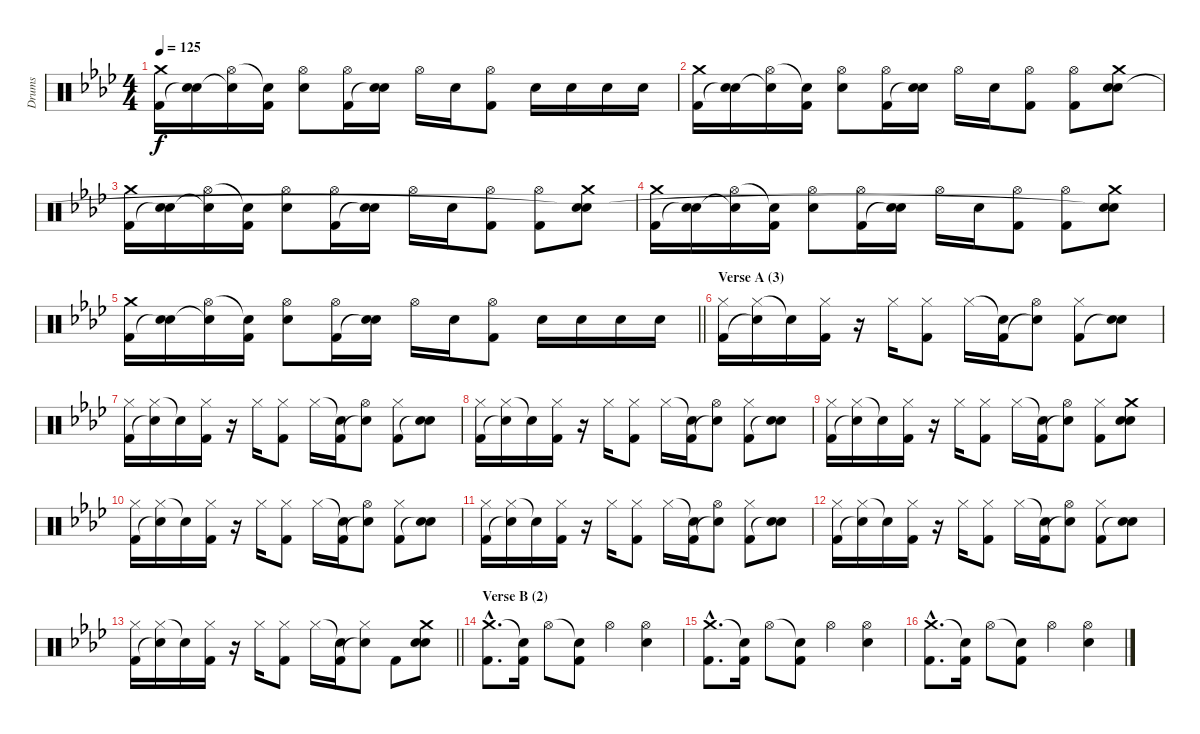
\track ("Drums" "Drums") {instrument percussion}
\staff {score}
\articulation defaults
\ts (4 4)
\tempo 125
\clef neutral
\ks ab
("Crash medium (hit)" "Kick (hit) 2").16{dy f} ("Electric Snare (hit)" "Snare (hit)"{t}).16 ("Hi-Hat (open)" "Snare (hit)"{t}).16 ("Snare (hit)"{t} "Kick (hit) 2").16 ("Hi-Hat (open)" "Electric Snare (hit)").8 ("Hi-Hat (open)" "Kick (hit) 2").16 ("Electric Snare (hit)" "Snare (hit)"{t}).16 "Hi-Hat (open)".16 "Electric Snare (hit)".16 ("Hi-Hat (open)" "Kick (hit) 2").8 "Electric Snare (hit)".16 "Electric Snare (hit)".16 "Electric Snare (hit)".16 "Electric Snare (hit)".16 |
("Crash medium (hit)" "Kick (hit) 2").16 ("Electric Snare (hit)" "Snare (hit)"{t}).16 ("Hi-Hat (open)" "Snare (hit)"{t}).16 ("Snare (hit)"{t} "Kick (hit) 2").16 ("Hi-Hat (open)" "Electric Snare (hit)").8 ("Hi-Hat (open)" "Kick (hit) 2").16 ("Electric Snare (hit)" "Snare (hit)"{t}).16 "Hi-Hat (open)".16 "Electric Snare (hit)".16 ("Hi-Hat (open)" "Kick (hit) 2").8 ("Hi-Hat (open)" "Kick (hit) 2").8 ("Crash medium (hit)" "Electric Snare (hit)" "Snare (hit)"{t}).8 |
("Crash medium (hit)" "Kick (hit) 2").16 ("Electric Snare (hit)" "Snare (hit)"{t}).16 ("Hi-Hat (open)" "Snare (hit)"{t}).16 ("Snare (hit)"{t} "Kick (hit) 2").16 ("Hi-Hat (open)" "Electric Snare (hit)").8 ("Hi-Hat (open)" "Kick (hit) 2").16 ("Electric Snare (hit)" "Snare (hit)"{t}).16 "Hi-Hat (open)".16 "Electric Snare (hit)".16 ("Hi-Hat (open)" "Kick (hit) 2").8 ("Hi-Hat (open)" "Kick (hit) 2").8 ("Crash medium (hit)" "Electric Snare (hit)" "Snare (hit)"{t}).8 |
("Crash medium (hit)" "Kick (hit) 2").16 ("Electric Snare (hit)" "Snare (hit)"{t}).16 ("Hi-Hat (open)" "Snare (hit)"{t}).16 ("Snare (hit)"{t} "Kick (hit) 2").16 ("Hi-Hat (open)" "Electric Snare (hit)").8 ("Hi-Hat (open)" "Kick (hit) 2").16 ("Electric Snare (hit)" "Snare (hit)"{t}).16 "Hi-Hat (open)".16 "Electric Snare (hit)".16 ("Hi-Hat (open)" "Kick (hit) 2").8 ("Hi-Hat (open)" "Kick (hit) 2").8 ("Crash medium (hit)" "Electric Snare (hit)" "Snare (hit)"{t}).8 |
\barLineRight lightlight
("Crash medium (hit)" "Kick (hit) 2").16 ("Electric Snare (hit)" "Snare (hit)"{t}).16 ("Hi-Hat (open)" "Snare (hit)"{t}).16 ("Snare (hit)"{t} "Kick (hit) 2").16 ("Hi-Hat (open)" "Electric Snare (hit)").8 ("Hi-Hat (open)" "Kick (hit) 2").16 ("Electric Snare (hit)" "Snare (hit)"{t}).16 "Hi-Hat (open)".16 "Electric Snare (hit)".16 ("Hi-Hat (open)" "Kick (hit) 2").8 "Electric Snare (hit)".16 "Electric Snare (hit)".16 "Electric Snare (hit)".16 "Electric Snare (hit)".16 |
\section ("" "Verse A (3)")
("Hi-Hat (closed)" "Kick (hit) 2").16 ("Hi-Hat (closed)" "Snare (hit)"{t}).16 "Snare (hit)"{t}.16 ("Hi-Hat (closed)" "Kick (hit) 2").16 r.16 "Hi-Hat (closed)".16 ("Hi-Hat (closed)" "Kick (hit) 2").8 "Hi-Hat (closed)".16 ("Snare (hit)"{t} "Kick (hit) 2").16 ("Hi-Hat (open)" "Snare (hit)"{t}).8 ("Hi-Hat (closed)" "Kick (hit) 2").8 ("Electric Snare (hit)" "Snare (hit)"{t}).8 |
("Hi-Hat (closed)" "Kick (hit) 2").16 ("Hi-Hat (closed)" "Snare (hit)"{t}).16 "Snare (hit)"{t}.16 ("Hi-Hat (closed)" "Kick (hit) 2").16 r.16 "Hi-Hat (closed)".16 ("Hi-Hat (closed)" "Kick (hit) 2").8 "Hi-Hat (closed)".16 ("Snare (hit)"{t} "Kick (hit) 2").16 ("Hi-Hat (open)" "Snare (hit)"{t}).8 ("Hi-Hat (closed)" "Kick (hit) 2").8 ("Electric Snare (hit)" "Snare (hit)"{t}).8 |
("Hi-Hat (closed)" "Kick (hit) 2").16 ("Hi-Hat (closed)" "Snare (hit)"{t}).16 "Snare (hit)"{t}.16 ("Hi-Hat (closed)" "Kick (hit) 2").16 r.16 "Hi-Hat (closed)".16 ("Hi-Hat (closed)" "Kick (hit) 2").8 "Hi-Hat (closed)".16 ("Snare (hit)"{t} "Kick (hit) 2").16 ("Hi-Hat (open)" "Snare (hit)"{t}).8 ("Hi-Hat (closed)" "Kick (hit) 2").8 ("Electric Snare (hit)" "Snare (hit)"{t}).8 |
("Hi-Hat (closed)" "Kick (hit) 2").16 ("Hi-Hat (closed)" "Snare (hit)"{t}).16 "Snare (hit)"{t}.16 ("Hi-Hat (closed)" "Kick (hit) 2").16 r.16 "Hi-Hat (closed)".16 ("Hi-Hat (closed)" "Kick (hit) 2").8 "Hi-Hat (closed)".16 ("Snare (hit)"{t} "Kick (hit) 2").16 ("Hi-Hat (open)" "Snare (hit)"{t}).8 ("Hi-Hat (closed)" "Kick (hit) 2").8 ("Crash medium (hit)" "Electric Snare (hit)" "Snare (hit)").8 |
("Hi-Hat (closed)" "Kick (hit) 2").16 ("Hi-Hat (closed)" "Snare (hit)"{t}).16 "Snare (hit)"{t}.16 ("Hi-Hat (closed)" "Kick (hit) 2").16 r.16 "Hi-Hat (closed)".16 ("Hi-Hat (closed)" "Kick (hit) 2").8 "Hi-Hat (closed)".16 ("Snare (hit)"{t} "Kick (hit) 2").16 ("Hi-Hat (open)" "Snare (hit)"{t}).8 ("Hi-Hat (closed)" "Kick (hit) 2").8 ("Electric Snare (hit)" "Snare (hit)"{t}).8 |
("Hi-Hat (closed)" "Kick (hit) 2").16 ("Hi-Hat (closed)" "Snare (hit)"{t}).16 "Snare (hit)"{t}.16 ("Hi-Hat (closed)" "Kick (hit) 2").16 r.16 "Hi-Hat (closed)".16 ("Hi-Hat (closed)" "Kick (hit) 2").8 "Hi-Hat (closed)".16 ("Snare (hit)"{t} "Kick (hit) 2").16 ("Hi-Hat (open)" "Snare (hit)"{t}).8 ("Hi-Hat (closed)" "Kick (hit) 2").8 ("Electric Snare (hit)" "Snare (hit)"{t}).8 |
("Hi-Hat (closed)" "Kick (hit) 2").16 ("Hi-Hat (closed)" "Snare (hit)"{t}).16 "Snare (hit)"{t}.16 ("Hi-Hat (closed)" "Kick (hit) 2").16 r.16 "Hi-Hat (closed)".16 ("Hi-Hat (closed)" "Kick (hit) 2").8 "Hi-Hat (closed)".16 ("Snare (hit)"{t} "Kick (hit) 2").16 ("Hi-Hat (open)" "Snare (hit)"{t}).8 ("Hi-Hat (closed)" "Kick (hit) 2").8 ("Electric Snare (hit)" "Snare (hit)"{t}).8 |
\barLineRight lightlight
("Hi-Hat (closed)" "Kick (hit) 2").16 ("Hi-Hat (closed)" "Snare (hit)"{t}).16 "Snare (hit)"{t}.16 ("Hi-Hat (closed)" "Kick (hit) 2").16 r.16 "Hi-Hat (closed)".16 ("Hi-Hat (closed)" "Kick (hit) 2").8 "Hi-Hat (closed)".16 ("Snare (hit)"{t} "Kick (hit) 2").16 ("Hi-Hat (closed)" "Snare (hit)"{t}).8 "Kick (hit) 2".8 ("Crash medium (hit)" "Electric Snare (hit)" "Snare (hit)").8 |
\section ("" "Verse B (2)")
("Crash medium (hit)"{hac} "Kick (hit) 2"{hac}).8{d} ("Snare (hit)"{t} "Kick (hit) 2").16 "Hi-Hat (open)".8 ("Snare (hit)"{t} "Kick (hit) 2").8 "Hi-Hat (open)".4 ("Hi-Hat (open)" "Electric Snare (hit)").4 |
("Crash medium (hit)"{hac} "Kick (hit) 2"{hac}).8{d} ("Snare (hit)"{t} "Kick (hit) 2").16 "Hi-Hat (open)".8 ("Snare (hit)"{t} "Kick (hit) 2").8 "Hi-Hat (open)".4 ("Hi-Hat (open)" "Electric Snare (hit)").4 |
("Crash medium (hit)"{hac} "Kick (hit) 2"{hac}).8{d} ("Snare (hit)"{t} "Kick (hit) 2").16 "Hi-Hat (open)".8 ("Snare (hit)"{t} "Kick (hit) 2").8 "Hi-Hat (open)".4 ("Hi-Hat (open)" "Electric Snare (hit)").4
